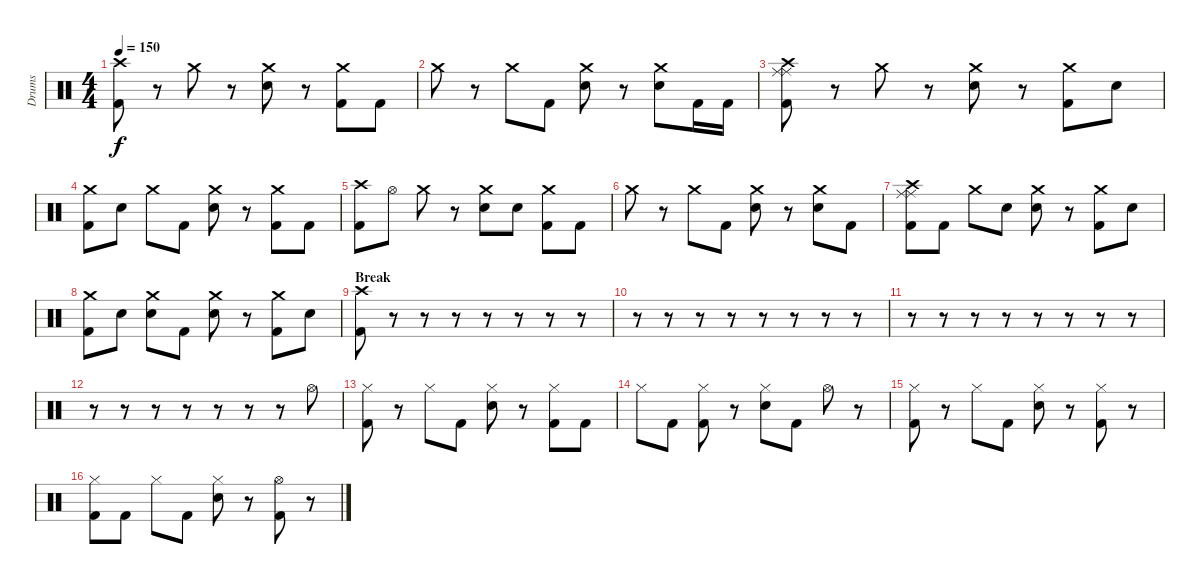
\track ("Drums" "Drums") {instrument percussion}
\staff {score}
\articulation defaults
\ts (4 4)
\tempo 150
\clef neutral
\ks c
("Crash high (hit)" "Kick (hit) 2").8{dy f} r.8 "Crash medium (hit)".8 r.8 ("Crash medium (hit)" "Electric Snare (hit)").8 r.8 ("Crash medium (hit)" "Kick (hit) 2").8 "Kick (hit) 2".8 |
"Crash medium (hit)".8 r.8 "Crash medium (hit)".8 "Kick (hit) 2".8 ("Crash medium (hit)" "Electric Snare (hit)").8 r.8 ("Crash medium (hit)" "Electric Snare (hit)").8 "Kick (hit) 2".16 "Kick (hit) 2".16 |
("Crash high (hit)" "Ride (middle)" "Ride (middle)" "Kick (hit) 2").8 r.8 "Crash medium (hit)".8 r.8 ("Crash medium (hit)" "Electric Snare (hit)").8 r.8 ("Crash medium (hit)" "Kick (hit) 2").8 "Electric Snare (hit)".8 |
("Crash medium (hit)" "Kick (hit) 2").8 "Electric Snare (hit)".8 "Crash medium (hit)".8 "Kick (hit) 2".8 ("Crash medium (hit)" "Electric Snare (hit)").8 r.8 ("Crash medium (hit)" "Kick (hit) 2").8 "Kick (hit) 2".8 |
("Crash high (hit)" "Kick (hit) 2").8 "Hi-Hat (open)".8 "Crash medium (hit)".8 r.8 ("Crash medium (hit)" "Electric Snare (hit)").8 "Electric Snare (hit)".8 ("Crash medium (hit)" "Kick (hit) 2").8 "Kick (hit) 2".8 |
"Crash medium (hit)".8 r.8 "Crash medium (hit)".8 "Kick (hit) 2".8 ("Crash medium (hit)" "Electric Snare (hit)").8 r.8 ("Crash medium (hit)" "Electric Snare (hit)").8 "Kick (hit) 2".8 |
("Crash high (hit)" "Ride (middle)" "Ride (middle)" "Kick (hit) 2").8 "Kick (hit) 2".8 "Crash medium (hit)".8 "Electric Snare (hit)".8 ("Crash medium (hit)" "Electric Snare (hit)").8 r.8 ("Crash medium (hit)" "Kick (hit) 2").8 "Electric Snare (hit)".8 |
("Crash medium (hit)" "Kick (hit) 2").8 "Electric Snare (hit)".8 ("Crash medium (hit)" "Electric Snare (hit)").8 "Kick (hit) 2".8 ("Crash medium (hit)" "Electric Snare (hit)").8 r.8 ("Crash medium (hit)" "Kick (hit) 2").8 "Electric Snare (hit)".8 |
\section ("" "Break")
("Crash high (hit)" "Kick (hit) 2").8 r.8 r.8 r.8 r.8 r.8 r.8 r.8 |
r.8 r.8 r.8 r.8 r.8 r.8 r.8 r.8 |
r.8 r.8 r.8 r.8 r.8 r.8 r.8 r.8 |
r.8 r.8 r.8 r.8 r.8 r.8 r.8 "Hi-Hat (open)".8 |
("Hi-Hat (closed)" "Kick (hit) 2").8 r.8 "Hi-Hat (closed)".8 "Kick (hit) 2".8 ("Hi-Hat (closed)" "Electric Snare (hit)").8 r.8 ("Hi-Hat (closed)" "Kick (hit) 2").8 "Kick (hit) 2".8 |
"Hi-Hat (closed)".8 "Kick (hit) 2".8 ("Hi-Hat (closed)" "Kick (hit) 2").8 r.8 ("Hi-Hat (closed)" "Electric Snare (hit)").8 "Kick (hit) 2".8 "Hi-Hat (open)".8 r.8 |
("Hi-Hat (closed)" "Kick (hit) 2").8 r.8 "Hi-Hat (closed)".8 "Kick (hit) 2".8 ("Hi-Hat (closed)" "Electric Snare (hit)").8 r.8 ("Hi-Hat (closed)" "Kick (hit) 2").8 r.8 |
("Hi-Hat (closed)" "Kick (hit) 2").8 "Kick (hit) 2".8 "Hi-Hat (closed)".8 "Kick (hit) 2".8 ("Hi-Hat (closed)" "Electric Snare (hit)").8 r.8 ("Hi-Hat (open)" "Kick (hit) 2").8 r.8
